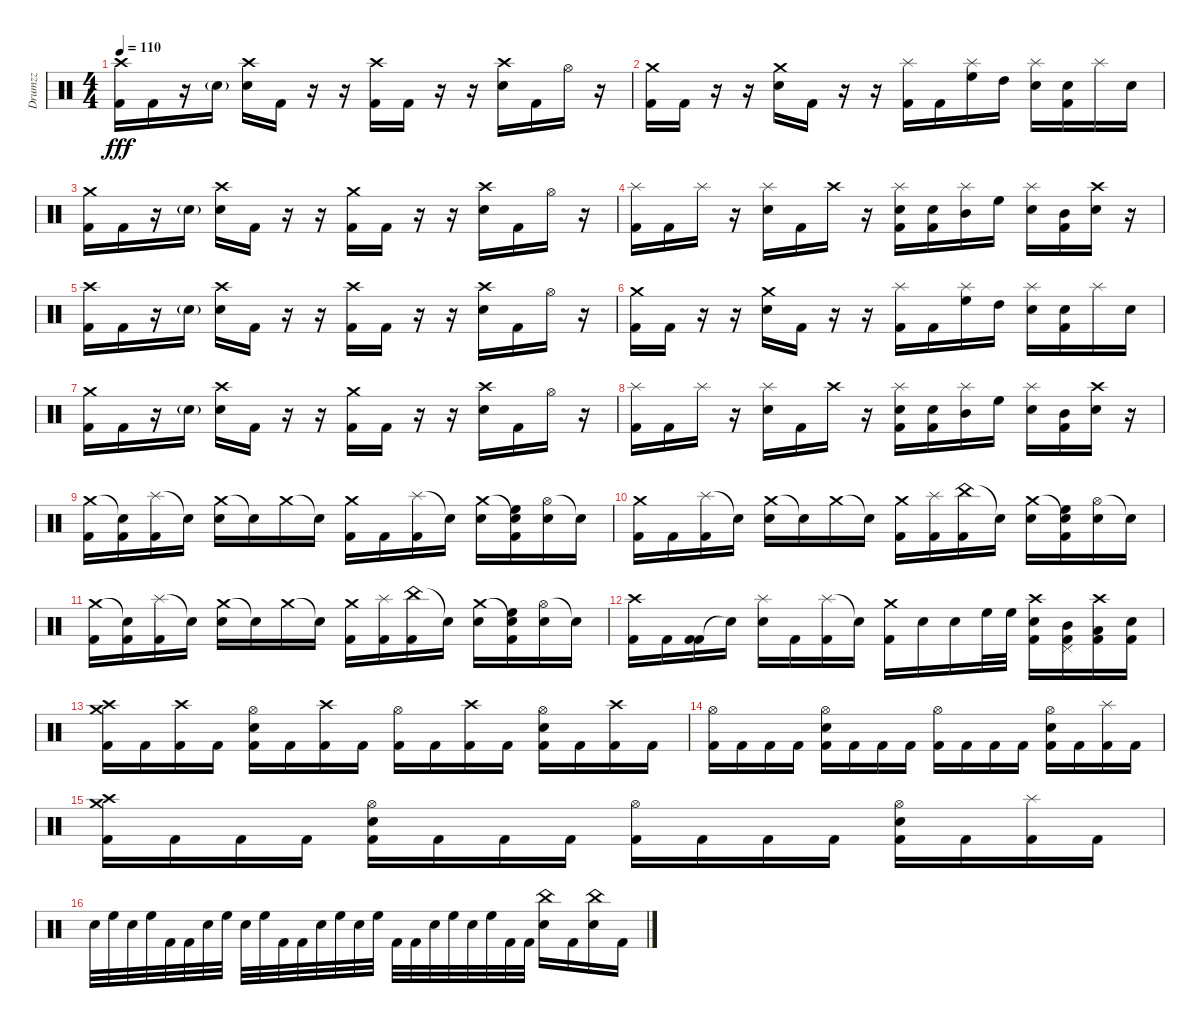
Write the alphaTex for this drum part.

\track ("Drumzz" "Drumzz") {instrument percussion}
\staff {score}
\articulation defaults
\ts (4 4)
\tempo 110
\clef neutral
\ks c
("Crash high (hit)" "Kick (hit) 2").16{dy fff} "Kick (hit) 2".16 r.16 "Snare (hit) 2"{g}.16 ("Crash high (hit)" "Snare (hit) 2").16 "Kick (hit) 2".16 r.16 r.16 ("Crash high (hit)" "Kick (hit) 2").16 "Kick (hit) 2".16 r.16 r.16 ("Crash high (hit)" "Snare (hit) 2").16 "Kick (hit) 2".16 "Hi-Hat (open)".16 r.16 |
("Crash medium (hit)" "Kick (hit) 2").16 "Kick (hit) 2".16 r.16 r.16 ("Crash medium (hit)" "Snare (hit) 2").16 "Kick (hit) 2".16 r.16 r.16 ("Splash (hit)" "Kick (hit) 2").16 "Kick (hit) 2".16 ("Splash (hit)" "High Floor Tom (hit)").16 "High Tom (hit)".16 ("Splash (hit)" "Snare (hit) 2").16 ("Snare (hit) 2" "Kick (hit) 2").16 "Splash (hit)".16 "Snare (hit) 2".16 |
("Crash medium (hit)" "Kick (hit) 2").16 "Kick (hit) 2".16 r.16 "Snare (hit) 2"{g}.16 ("Crash high (hit)" "Snare (hit) 2").16 "Kick (hit) 2".16 r.16 r.16 ("Crash medium (hit)" "Kick (hit) 2").16 "Kick (hit) 2".16 r.16 r.16 ("Crash high (hit)" "Snare (hit) 2").16 "Kick (hit) 2".16 "Hi-Hat (open)".16 r.16 |
("Splash (hit)" "Kick (hit) 2").16 "Kick (hit) 2".16 "Splash (hit)".16 r.16 ("Splash (hit)" "Snare (hit) 2").16 "Kick (hit) 2".16 "Crash high (hit)".16 r.16 ("Splash (hit)" "Snare (hit) 2" "Kick (hit) 2").16 ("Snare (hit) 2" "Kick (hit) 2").16 ("Splash (hit)" "Mid Tom (hit)").16 "High Floor Tom (hit)".16 ("Splash (hit)" "Snare (hit) 2").16 ("Mid Tom (hit)" "Kick (hit) 2").16 ("Crash high (hit)" "Snare (hit) 2").16 r.16 |
("Crash high (hit)" "Kick (hit) 2").16 "Kick (hit) 2".16 r.16 "Snare (hit) 2"{g}.16 ("Crash high (hit)" "Snare (hit) 2").16 "Kick (hit) 2".16 r.16 r.16 ("Crash high (hit)" "Kick (hit) 2").16 "Kick (hit) 2".16 r.16 r.16 ("Crash high (hit)" "Snare (hit) 2").16 "Kick (hit) 2".16 "Hi-Hat (open)".16 r.16 |
("Crash medium (hit)" "Kick (hit) 2").16 "Kick (hit) 2".16 r.16 r.16 ("Crash medium (hit)" "Snare (hit) 2").16 "Kick (hit) 2".16 r.16 r.16 ("Splash (hit)" "Kick (hit) 2").16 "Kick (hit) 2".16 ("Splash (hit)" "High Floor Tom (hit)").16 "High Tom (hit)".16 ("Splash (hit)" "Snare (hit) 2").16 ("Snare (hit) 2" "Kick (hit) 2").16 "Splash (hit)".16 "Snare (hit) 2".16 |
("Crash medium (hit)" "Kick (hit) 2").16 "Kick (hit) 2".16 r.16 "Snare (hit) 2"{g}.16 ("Crash high (hit)" "Snare (hit) 2").16 "Kick (hit) 2".16 r.16 r.16 ("Crash medium (hit)" "Kick (hit) 2").16 "Kick (hit) 2".16 r.16 r.16 ("Crash high (hit)" "Snare (hit) 2").16 "Kick (hit) 2".16 "Hi-Hat (open)".16 r.16 |
("Splash (hit)" "Kick (hit) 2").16 "Kick (hit) 2".16 "Splash (hit)".16 r.16 ("Splash (hit)" "Snare (hit) 2").16 "Kick (hit) 2".16 "Crash high (hit)".16 r.16 ("Splash (hit)" "Snare (hit) 2" "Kick (hit) 2").16 ("Snare (hit) 2" "Kick (hit) 2").16 ("Splash (hit)" "Mid Tom (hit)").16 "High Floor Tom (hit)".16 ("Splash (hit)" "Snare (hit) 2").16 ("Mid Tom (hit)" "Kick (hit) 2").16 ("Crash high (hit)" "Snare (hit) 2").16 r.16 |
("Crash medium (hit)" "Kick (hit) 2").16 ("Snare (hit)"{t} "Kick (hit) 2").16 ("Splash (hit)" "Kick (hit) 2").16 "Snare (hit)"{t}.16 ("Crash medium (hit)" "Snare (hit) 2").16 "Snare (hit)"{t}.16 "Crash medium (hit)".16 "Snare (hit)"{t}.16 ("Crash medium (hit)" "Kick (hit) 2").16 "Kick (hit) 2".16 ("Splash (hit)" "Kick (hit) 2").16 "Snare (hit)"{t}.16 ("Crash medium (hit)" "Snare (hit) 2").16 ("Snare (hit)"{t} "High Floor Tom (hit)" "Kick (hit) 2").16 ("Hi-Hat (open)" "Snare (hit) 2").16 "Snare (hit)"{t}.16 |
("Crash medium (hit)" "Kick (hit) 2").16 "Kick (hit) 2".16 ("Splash (hit)" "Kick (hit) 2").16 "Snare (hit)"{t}.16 ("Crash medium (hit)" "Snare (hit) 2").16 "Snare (hit)"{t}.16 "Crash medium (hit)".16 "Snare (hit)"{t}.16 ("Crash medium (hit)" "Kick (hit) 2").16 ("Splash (hit)" "Kick (hit) 2").16 ("China (hit)" "Kick (hit) 2").16 "Snare (hit)"{t}.16 ("Crash medium (hit)" "Snare (hit) 2").16 ("Snare (hit)"{t} "High Floor Tom (hit)" "Kick (hit) 2").16 ("Hi-Hat (open)" "Snare (hit) 2").16 "Snare (hit)"{t}.16 |
("Crash medium (hit)" "Kick (hit) 2").16 ("Snare (hit)"{t} "Kick (hit) 2").16 ("Splash (hit)" "Kick (hit) 2").16 "Snare (hit)"{t}.16 ("Crash medium (hit)" "Snare (hit) 2").16 "Snare (hit)"{t}.16 "Crash medium (hit)".16 "Snare (hit)"{t}.16 ("Crash medium (hit)" "Kick (hit) 2").16 ("Splash (hit)" "Kick (hit) 2").16 ("China (hit)" "Kick (hit) 2").16 "Snare (hit)"{t}.16 ("Crash medium (hit)" "Snare (hit) 2").16 ("Snare (hit)"{t} "High Floor Tom (hit)" "Kick (hit) 2").16 ("Hi-Hat (open)" "Snare (hit) 2").16 "Snare (hit)"{t}.16 |
("Crash high (hit)" "Kick (hit) 2").16 "Kick (hit) 2".16 ("Kick (hit) 2" "Kick (hit) 2").16 "Snare (hit)"{t}.16 ("Splash (hit)" "Snare (hit) 2").16 "Kick (hit) 2".16 ("Splash (hit)" "Kick (hit) 2").16 "Snare (hit)"{t}.16 ("Crash medium (hit)" "Kick (hit) 2").16 "Snare (hit) 2".16 "Snare (hit) 2".16 "High Floor Tom (hit)".32 "High Floor Tom (hit)".32 ("Crash high (hit)" "Snare (hit) 2" "Kick (hit) 2").16 ("Pedal Hi-Hat (hit)" "Mid Tom (hit)" "Kick (hit) 2").16 ("Crash high (hit)" "Low Tom (hit)" "Kick (hit) 2").16 ("Snare (hit) 2" "Kick (hit) 2").16 |
("Crash high (hit)" "Crash medium (hit)" "Kick (hit) 2").16 "Kick (hit) 2".16 ("Crash high (hit)" "Kick (hit) 2").16 "Kick (hit) 2".16 ("Hi-Hat (open)" "Snare (hit) 2" "Kick (hit) 2").16 "Kick (hit) 2".16 ("Crash high (hit)" "Kick (hit) 2").16 "Kick (hit) 2".16 ("Hi-Hat (open)" "Kick (hit) 2").16 "Kick (hit) 2".16 ("Crash high (hit)" "Kick (hit) 2").16 "Kick (hit) 2".16 ("Hi-Hat (open)" "Snare (hit) 2" "Kick (hit) 2").16 "Kick (hit) 2".16 ("Crash high (hit)" "Kick (hit) 2").16 "Kick (hit) 2".16 |
("Hi-Hat (open)" "Kick (hit) 2").16 "Kick (hit) 2".16 "Kick (hit) 2".16 "Kick (hit) 2".16 ("Hi-Hat (open)" "Snare (hit) 2" "Kick (hit) 2").16 "Kick (hit) 2".16 "Kick (hit) 2".16 "Kick (hit) 2".16 ("Hi-Hat (open)" "Kick (hit) 2").16 "Kick (hit) 2".16 "Kick (hit) 2".16 "Kick (hit) 2".16 ("Hi-Hat (open)" "Snare (hit) 2" "Kick (hit) 2").16 "Kick (hit) 2".16 ("Splash (hit)" "Kick (hit) 2").16 "Kick (hit) 2".16 |
("Crash high (hit)" "Crash medium (hit)" "Kick (hit) 2").16 "Kick (hit) 2".16 "Kick (hit) 2".16 "Kick (hit) 2".16 ("Hi-Hat (open)" "Snare (hit) 2" "Kick (hit) 2").16 "Kick (hit) 2".16 "Kick (hit) 2".16 "Kick (hit) 2".16 ("Hi-Hat (open)" "Kick (hit) 2").16 "Kick (hit) 2".16 "Kick (hit) 2".16 "Kick (hit) 2".16 ("Hi-Hat (open)" "Snare (hit) 2" "Kick (hit) 2").16 "Kick (hit) 2".16 ("Splash (hit)" "Kick (hit) 2").16 "Kick (hit) 2".16 |
"Snare (hit) 2".32 "High Floor Tom (hit)".32 "Snare (hit) 2".32 "High Floor Tom (hit)".32 "Kick (hit) 2".32 "Kick (hit) 2".32 "Snare (hit) 2".32 "High Floor Tom (hit)".32 "Snare (hit) 2".32 "High Floor Tom (hit)".32 "Kick (hit) 2".32 "Kick (hit) 2".32 "Snare (hit) 2".32 "High Floor Tom (hit)".32 "Snare (hit) 2".32 "High Floor Tom (hit)".32 "Kick (hit) 2".32 "Kick (hit) 2".32 "Snare (hit) 2".32 "High Floor Tom (hit)".32 "Snare (hit) 2".32 "High Floor Tom (hit)".32 "Kick (hit) 2".32 "Kick (hit) 2".32 ("China (hit)" "Snare (hit) 2").16 "Kick (hit) 2".16 ("China (hit)" "Snare (hit) 2").16 "Kick (hit) 2".16
